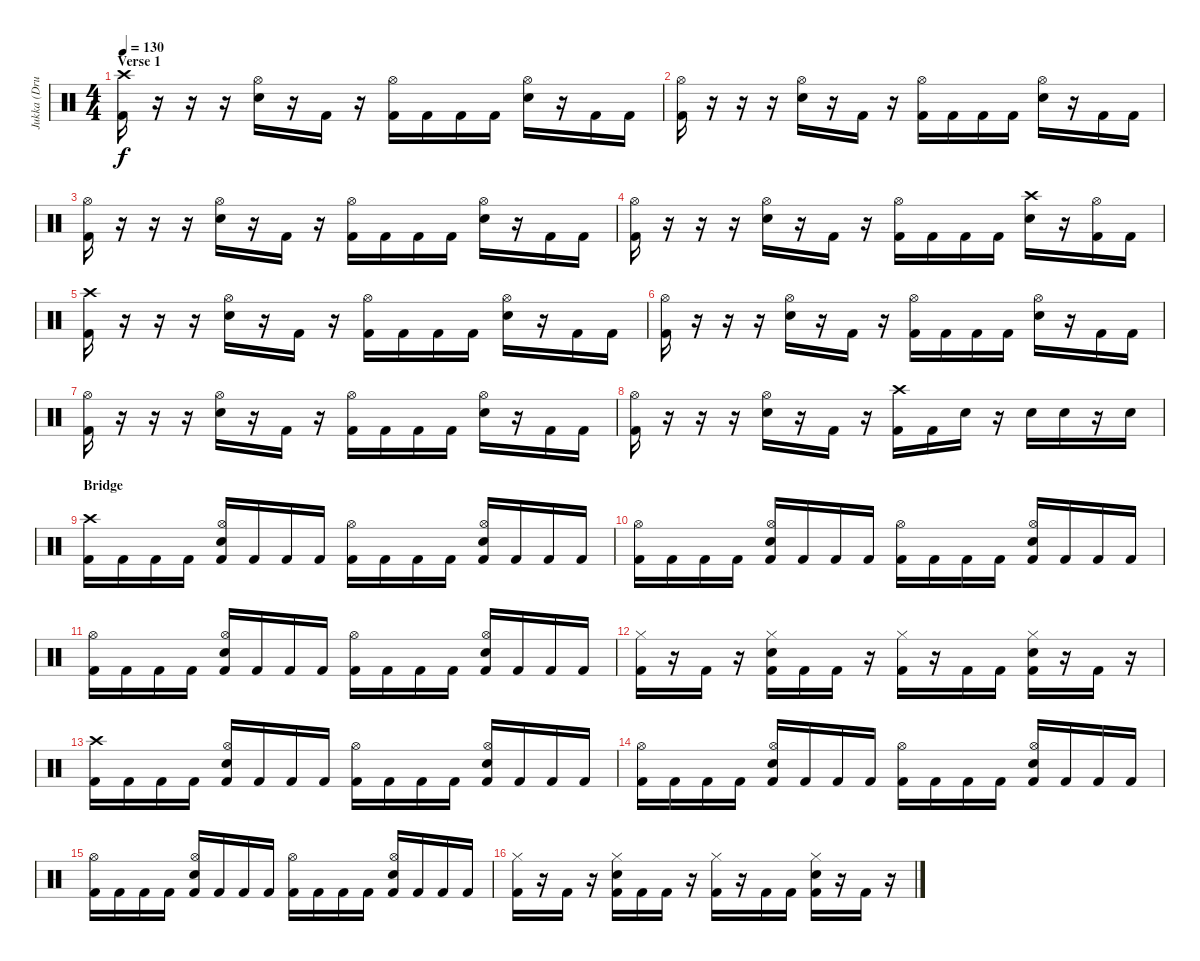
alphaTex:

\track ("Jukka (Drums)" "Jukka (Dru") {instrument percussion}
\staff {score}
\articulation defaults
\ts (4 4)
\section ("" "Verse 1")
\tempo 130
\clef neutral
\ks c
("Crash high (hit)" "Kick (hit) 2").16{dy f} r.16 r.16 r.16 ("Hi-Hat (open)" "Electric Snare (hit)").16 r.16 "Kick (hit) 2".16 r.16 ("Hi-Hat (open)" "Kick (hit) 2").16 "Kick (hit) 2".16 "Kick (hit) 2".16 "Kick (hit) 2".16 ("Hi-Hat (open)" "Electric Snare (hit)").16 r.16 "Kick (hit) 2".16 "Kick (hit) 2".16 |
("Hi-Hat (open)" "Kick (hit) 2").16 r.16 r.16 r.16 ("Hi-Hat (open)" "Electric Snare (hit)").16 r.16 "Kick (hit) 2".16 r.16 ("Hi-Hat (open)" "Kick (hit) 2").16 "Kick (hit) 2".16 "Kick (hit) 2".16 "Kick (hit) 2".16 ("Hi-Hat (open)" "Electric Snare (hit)").16 r.16 "Kick (hit) 2".16 "Kick (hit) 2".16 |
("Hi-Hat (open)" "Kick (hit) 2").16 r.16 r.16 r.16 ("Hi-Hat (open)" "Electric Snare (hit)").16 r.16 "Kick (hit) 2".16 r.16 ("Hi-Hat (open)" "Kick (hit) 2").16 "Kick (hit) 2".16 "Kick (hit) 2".16 "Kick (hit) 2".16 ("Hi-Hat (open)" "Electric Snare (hit)").16 r.16 "Kick (hit) 2".16 "Kick (hit) 2".16 |
("Hi-Hat (open)" "Kick (hit) 2").16 r.16 r.16 r.16 ("Hi-Hat (open)" "Electric Snare (hit)").16 r.16 "Kick (hit) 2".16 r.16 ("Hi-Hat (open)" "Kick (hit) 2").16 "Kick (hit) 2".16 "Kick (hit) 2".16 "Kick (hit) 2".16 ("Crash high (hit)" "Electric Snare (hit)").16 r.16 ("Hi-Hat (open)" "Kick (hit) 2").16 "Kick (hit) 2".16 |
("Crash high (hit)" "Kick (hit) 2").16 r.16 r.16 r.16 ("Hi-Hat (open)" "Electric Snare (hit)").16 r.16 "Kick (hit) 2".16 r.16 ("Hi-Hat (open)" "Kick (hit) 2").16 "Kick (hit) 2".16 "Kick (hit) 2".16 "Kick (hit) 2".16 ("Hi-Hat (open)" "Electric Snare (hit)").16 r.16 "Kick (hit) 2".16 "Kick (hit) 2".16 |
("Hi-Hat (open)" "Kick (hit) 2").16 r.16 r.16 r.16 ("Hi-Hat (open)" "Electric Snare (hit)").16 r.16 "Kick (hit) 2".16 r.16 ("Hi-Hat (open)" "Kick (hit) 2").16 "Kick (hit) 2".16 "Kick (hit) 2".16 "Kick (hit) 2".16 ("Hi-Hat (open)" "Electric Snare (hit)").16 r.16 "Kick (hit) 2".16 "Kick (hit) 2".16 |
("Hi-Hat (open)" "Kick (hit) 2").16 r.16 r.16 r.16 ("Hi-Hat (open)" "Electric Snare (hit)").16 r.16 "Kick (hit) 2".16 r.16 ("Hi-Hat (open)" "Kick (hit) 2").16 "Kick (hit) 2".16 "Kick (hit) 2".16 "Kick (hit) 2".16 ("Hi-Hat (open)" "Electric Snare (hit)").16 r.16 "Kick (hit) 2".16 "Kick (hit) 2".16 |
("Hi-Hat (open)" "Kick (hit) 2").16 r.16 r.16 r.16 ("Hi-Hat (open)" "Electric Snare (hit)").16 r.16 "Kick (hit) 2".16 r.16 ("Crash high (hit)" "Kick (hit) 2").16 "Kick (hit) 2".16 "Electric Snare (hit)".16 r.16 "Electric Snare (hit)".16 "Electric Snare (hit)".16 r.16 "Electric Snare (hit)".16 |
\section ("" "Bridge")
("Crash high (hit)" "Kick (hit) 2").16 "Kick (hit) 2".16 "Kick (hit) 2".16 "Kick (hit) 2".16 ("Hi-Hat (open)" "Electric Snare (hit)" "Kick (hit) 2").16 "Kick (hit) 2".16 "Kick (hit) 2".16 "Kick (hit) 2".16 ("Hi-Hat (open)" "Kick (hit) 2").16 "Kick (hit) 2".16 "Kick (hit) 2".16 "Kick (hit) 2".16 ("Hi-Hat (open)" "Electric Snare (hit)" "Kick (hit) 2").16 "Kick (hit) 2".16 "Kick (hit) 2".16 "Kick (hit) 2".16 |
("Hi-Hat (open)" "Kick (hit) 2").16 "Kick (hit) 2".16 "Kick (hit) 2".16 "Kick (hit) 2".16 ("Hi-Hat (open)" "Electric Snare (hit)" "Kick (hit) 2").16 "Kick (hit) 2".16 "Kick (hit) 2".16 "Kick (hit) 2".16 ("Hi-Hat (open)" "Kick (hit) 2").16 "Kick (hit) 2".16 "Kick (hit) 2".16 "Kick (hit) 2".16 ("Hi-Hat (open)" "Electric Snare (hit)" "Kick (hit) 2").16 "Kick (hit) 2".16 "Kick (hit) 2".16 "Kick (hit) 2".16 |
("Hi-Hat (open)" "Kick (hit) 2").16 "Kick (hit) 2".16 "Kick (hit) 2".16 "Kick (hit) 2".16 ("Hi-Hat (open)" "Electric Snare (hit)" "Kick (hit) 2").16 "Kick (hit) 2".16 "Kick (hit) 2".16 "Kick (hit) 2".16 ("Hi-Hat (open)" "Kick (hit) 2").16 "Kick (hit) 2".16 "Kick (hit) 2".16 "Kick (hit) 2".16 ("Hi-Hat (open)" "Electric Snare (hit)" "Kick (hit) 2").16 "Kick (hit) 2".16 "Kick (hit) 2".16 "Kick (hit) 2".16 |
("Hi-Hat (closed)" "Kick (hit) 2").16 r.16 "Kick (hit) 2".16 r.16 ("Hi-Hat (closed)" "Electric Snare (hit)" "Kick (hit) 2").16 "Kick (hit) 2".16 "Kick (hit) 2".16 r.16 ("Hi-Hat (closed)" "Kick (hit) 2").16 r.16 "Kick (hit) 2".16 "Kick (hit) 2".16 ("Hi-Hat (closed)" "Electric Snare (hit)" "Kick (hit) 2").16 r.16 "Kick (hit) 2".16 r.16 |
("Crash high (hit)" "Kick (hit) 2").16 "Kick (hit) 2".16 "Kick (hit) 2".16 "Kick (hit) 2".16 ("Hi-Hat (open)" "Electric Snare (hit)" "Kick (hit) 2").16 "Kick (hit) 2".16 "Kick (hit) 2".16 "Kick (hit) 2".16 ("Hi-Hat (open)" "Kick (hit) 2").16 "Kick (hit) 2".16 "Kick (hit) 2".16 "Kick (hit) 2".16 ("Hi-Hat (open)" "Electric Snare (hit)" "Kick (hit) 2").16 "Kick (hit) 2".16 "Kick (hit) 2".16 "Kick (hit) 2".16 |
("Hi-Hat (open)" "Kick (hit) 2").16 "Kick (hit) 2".16 "Kick (hit) 2".16 "Kick (hit) 2".16 ("Hi-Hat (open)" "Electric Snare (hit)" "Kick (hit) 2").16 "Kick (hit) 2".16 "Kick (hit) 2".16 "Kick (hit) 2".16 ("Hi-Hat (open)" "Kick (hit) 2").16 "Kick (hit) 2".16 "Kick (hit) 2".16 "Kick (hit) 2".16 ("Hi-Hat (open)" "Electric Snare (hit)" "Kick (hit) 2").16 "Kick (hit) 2".16 "Kick (hit) 2".16 "Kick (hit) 2".16 |
("Hi-Hat (open)" "Kick (hit) 2").16 "Kick (hit) 2".16 "Kick (hit) 2".16 "Kick (hit) 2".16 ("Hi-Hat (open)" "Electric Snare (hit)" "Kick (hit) 2").16 "Kick (hit) 2".16 "Kick (hit) 2".16 "Kick (hit) 2".16 ("Hi-Hat (open)" "Kick (hit) 2").16 "Kick (hit) 2".16 "Kick (hit) 2".16 "Kick (hit) 2".16 ("Hi-Hat (open)" "Electric Snare (hit)" "Kick (hit) 2").16 "Kick (hit) 2".16 "Kick (hit) 2".16 "Kick (hit) 2".16 |
("Hi-Hat (closed)" "Kick (hit) 2").16 r.16 "Kick (hit) 2".16 r.16 ("Hi-Hat (closed)" "Electric Snare (hit)" "Kick (hit) 2").16 "Kick (hit) 2".16 "Kick (hit) 2".16 r.16 ("Hi-Hat (closed)" "Kick (hit) 2").16 r.16 "Kick (hit) 2".16 "Kick (hit) 2".16 ("Hi-Hat (closed)" "Electric Snare (hit)" "Kick (hit) 2").16 r.16 "Kick (hit) 2".16 r.16
